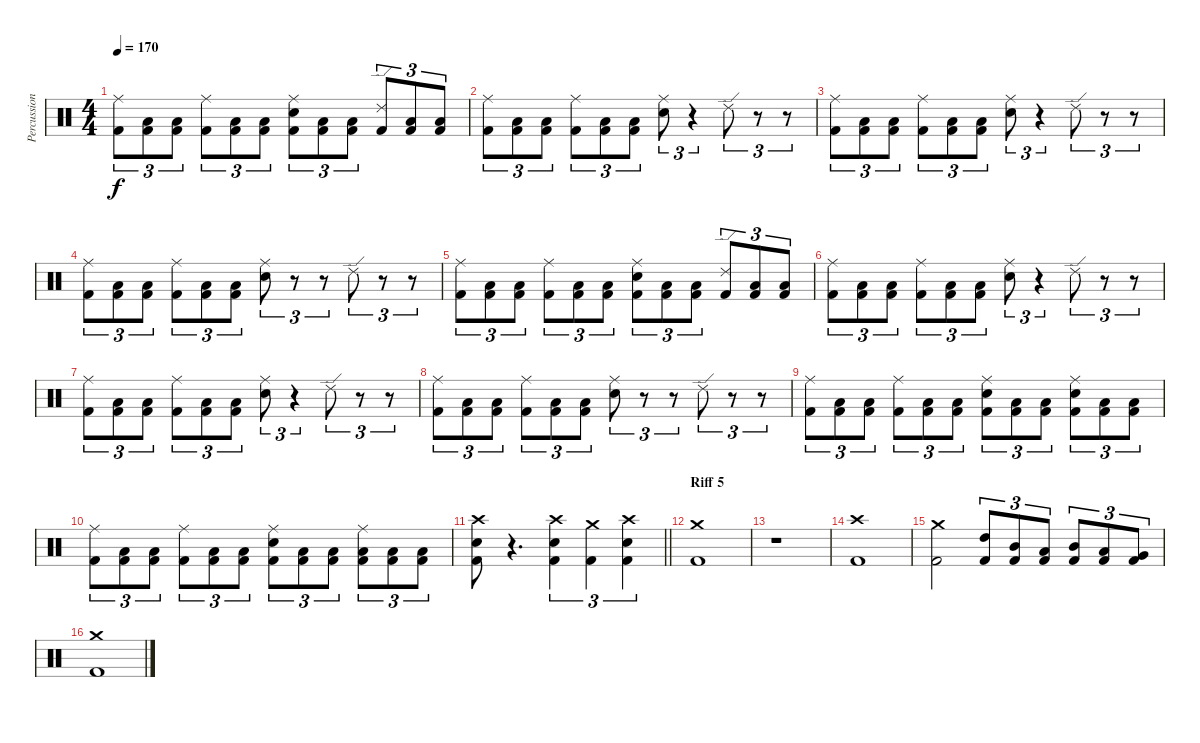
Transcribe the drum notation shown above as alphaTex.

\track ("Percussions" "Percussion") {instrument percussion}
\staff {score}
\articulation defaults
\ts (4 4)
\tempo 170
\clef neutral
\ks c
("Ride (middle)" "Kick (hit) 2").8{tu (3 2) dy f} ("Low Floor Tom (hit)" "Kick (hit) 2").8{tu (3 2)} ("Low Floor Tom (hit)" "Kick (hit) 2").8{tu (3 2)} ("Ride (middle)" "Kick (hit) 2").8{tu (3 2)} ("Low Floor Tom (hit)" "Kick (hit) 2").8{tu (3 2)} ("Low Floor Tom (hit)" "Kick (hit) 2").8{tu (3 2)} ("Ride (middle)" "Snare (hit) 2" "Kick (hit) 2").8{tu (3 2)} ("Low Floor Tom (hit)" "Kick (hit) 2").8{tu (3 2)} ("Low Floor Tom (hit)" "Kick (hit) 2").8{tu (3 2)} ("Ride (edge) 2" "Kick (hit) 2").8{tu (3 2)} ("Low Floor Tom (hit)" "Kick (hit) 2").8{tu (3 2)} ("Low Floor Tom (hit)" "Kick (hit) 2").8{tu (3 2)} |
("Ride (middle)" "Kick (hit) 2").8{tu (3 2)} ("Low Floor Tom (hit)" "Kick (hit) 2").8{tu (3 2)} ("Low Floor Tom (hit)" "Kick (hit) 2").8{tu (3 2)} ("Ride (middle)" "Kick (hit) 2").8{tu (3 2)} ("Low Floor Tom (hit)" "Kick (hit) 2").8{tu (3 2)} ("Low Floor Tom (hit)" "Kick (hit) 2").8{tu (3 2)} ("Ride (middle)" "Snare (hit) 2").8{tu (3 2)} r.4{tu (3 2)} "Ride (edge) 2".8{tu (3 2)} r.8{tu (3 2)} r.8{tu (3 2)} |
("Ride (middle)" "Kick (hit) 2").8{tu (3 2)} ("Low Floor Tom (hit)" "Kick (hit) 2").8{tu (3 2)} ("Low Floor Tom (hit)" "Kick (hit) 2").8{tu (3 2)} ("Ride (middle)" "Kick (hit) 2").8{tu (3 2)} ("Low Floor Tom (hit)" "Kick (hit) 2").8{tu (3 2)} ("Low Floor Tom (hit)" "Kick (hit) 2").8{tu (3 2)} ("Ride (middle)" "Snare (hit) 2").8{tu (3 2)} r.4{tu (3 2)} "Ride (edge) 2".8{tu (3 2)} r.8{tu (3 2)} r.8{tu (3 2)} |
("Ride (middle)" "Kick (hit) 2").8{tu (3 2)} ("Low Floor Tom (hit)" "Kick (hit) 2").8{tu (3 2)} ("Low Floor Tom (hit)" "Kick (hit) 2").8{tu (3 2)} ("Ride (middle)" "Kick (hit) 2").8{tu (3 2)} ("Low Floor Tom (hit)" "Kick (hit) 2").8{tu (3 2)} ("Low Floor Tom (hit)" "Kick (hit) 2").8{tu (3 2)} ("Ride (middle)" "Snare (hit) 2").8{tu (3 2)} r.8{tu (3 2)} r.8{tu (3 2)} "Ride (edge) 2".8{tu (3 2)} r.8{tu (3 2)} r.8{tu (3 2)} |
("Ride (middle)" "Kick (hit) 2").8{tu (3 2)} ("Low Floor Tom (hit)" "Kick (hit) 2").8{tu (3 2)} ("Low Floor Tom (hit)" "Kick (hit) 2").8{tu (3 2)} ("Ride (middle)" "Kick (hit) 2").8{tu (3 2)} ("Low Floor Tom (hit)" "Kick (hit) 2").8{tu (3 2)} ("Low Floor Tom (hit)" "Kick (hit) 2").8{tu (3 2)} ("Ride (middle)" "Snare (hit) 2" "Kick (hit) 2").8{tu (3 2)} ("Low Floor Tom (hit)" "Kick (hit) 2").8{tu (3 2)} ("Low Floor Tom (hit)" "Kick (hit) 2").8{tu (3 2)} ("Ride (edge) 2" "Kick (hit) 2").8{tu (3 2)} ("Low Floor Tom (hit)" "Kick (hit) 2").8{tu (3 2)} ("Low Floor Tom (hit)" "Kick (hit) 2").8{tu (3 2)} |
("Ride (middle)" "Kick (hit) 2").8{tu (3 2)} ("Low Floor Tom (hit)" "Kick (hit) 2").8{tu (3 2)} ("Low Floor Tom (hit)" "Kick (hit) 2").8{tu (3 2)} ("Ride (middle)" "Kick (hit) 2").8{tu (3 2)} ("Low Floor Tom (hit)" "Kick (hit) 2").8{tu (3 2)} ("Low Floor Tom (hit)" "Kick (hit) 2").8{tu (3 2)} ("Ride (middle)" "Snare (hit) 2").8{tu (3 2)} r.4{tu (3 2)} "Ride (edge) 2".8{tu (3 2)} r.8{tu (3 2)} r.8{tu (3 2)} |
("Ride (middle)" "Kick (hit) 2").8{tu (3 2)} ("Low Floor Tom (hit)" "Kick (hit) 2").8{tu (3 2)} ("Low Floor Tom (hit)" "Kick (hit) 2").8{tu (3 2)} ("Ride (middle)" "Kick (hit) 2").8{tu (3 2)} ("Low Floor Tom (hit)" "Kick (hit) 2").8{tu (3 2)} ("Low Floor Tom (hit)" "Kick (hit) 2").8{tu (3 2)} ("Ride (middle)" "Snare (hit) 2").8{tu (3 2)} r.4{tu (3 2)} "Ride (edge) 2".8{tu (3 2)} r.8{tu (3 2)} r.8{tu (3 2)} |
("Ride (middle)" "Kick (hit) 2").8{tu (3 2)} ("Low Floor Tom (hit)" "Kick (hit) 2").8{tu (3 2)} ("Low Floor Tom (hit)" "Kick (hit) 2").8{tu (3 2)} ("Ride (middle)" "Kick (hit) 2").8{tu (3 2)} ("Low Floor Tom (hit)" "Kick (hit) 2").8{tu (3 2)} ("Low Floor Tom (hit)" "Kick (hit) 2").8{tu (3 2)} ("Ride (middle)" "Snare (hit) 2").8{tu (3 2)} r.8{tu (3 2)} r.8{tu (3 2)} "Ride (edge) 2".8{tu (3 2)} r.8{tu (3 2)} r.8{tu (3 2)} |
("Ride (middle)" "Kick (hit) 2").8{tu (3 2)} ("Low Floor Tom (hit)" "Kick (hit) 2").8{tu (3 2)} ("Low Floor Tom (hit)" "Kick (hit) 2").8{tu (3 2)} ("Ride (middle)" "Kick (hit) 2").8{tu (3 2)} ("Low Floor Tom (hit)" "Kick (hit) 2").8{tu (3 2)} ("Low Floor Tom (hit)" "Kick (hit) 2").8{tu (3 2)} ("Ride (middle)" "Snare (hit) 2" "Kick (hit) 2").8{tu (3 2)} ("Low Floor Tom (hit)" "Kick (hit) 2").8{tu (3 2)} ("Low Floor Tom (hit)" "Kick (hit) 2").8{tu (3 2)} ("Ride (middle)" "Snare (hit) 2" "Kick (hit) 2").8{tu (3 2)} ("Low Floor Tom (hit)" "Kick (hit) 2").8{tu (3 2)} ("Low Floor Tom (hit)" "Kick (hit) 2").8{tu (3 2)} |
("Ride (middle)" "Kick (hit) 2").8{tu (3 2)} ("Low Floor Tom (hit)" "Kick (hit) 2").8{tu (3 2)} ("Low Floor Tom (hit)" "Kick (hit) 2").8{tu (3 2)} ("Ride (middle)" "Kick (hit) 2").8{tu (3 2)} ("Low Floor Tom (hit)" "Kick (hit) 2").8{tu (3 2)} ("Low Floor Tom (hit)" "Kick (hit) 2").8{tu (3 2)} ("Ride (middle)" "Snare (hit) 2" "Kick (hit) 2").8{tu (3 2)} ("Low Floor Tom (hit)" "Kick (hit) 2").8{tu (3 2)} ("Low Floor Tom (hit)" "Kick (hit) 2").8{tu (3 2)} ("Ride (middle)" "Low Floor Tom (hit)" "Kick (hit) 2").8{tu (3 2)} ("Low Floor Tom (hit)" "Kick (hit) 2").8{tu (3 2)} ("Low Floor Tom (hit)" "Kick (hit) 2").8{tu (3 2)} |
\barLineRight lightlight
("Crash high (hit)" "Snare (hit) 2" "Kick (hit) 2").8 r.4{d} ("Crash high (hit)" "Snare (hit) 2" "Kick (hit) 2").4{tu (3 2)} ("Crash medium (hit)" "Kick (hit) 2").4{tu (3 2)} ("Crash high (hit)" "Snare (hit) 2" "Kick (hit) 2").4{tu (3 2)} |
\section ("" "Riff 5")
("Crash medium (hit)" "Kick (hit) 2").1 |
r.1 |
("Crash high (hit)" "Kick (hit) 2").1 |
("Crash medium (hit)" "Kick (hit) 2").2 ("High Tom (hit)" "Kick (hit) 2").8{tu (3 2)} ("Mid Tom (hit)" "Kick (hit) 2").8{tu (3 2)} ("Low Tom (hit)" "Kick (hit) 2").8{tu (3 2)} ("Mid Tom (hit)" "Kick (hit) 2").8{tu (3 2)} ("Low Tom (hit)" "Kick (hit) 2").8{tu (3 2)} ("Very Low Tom (hit)" "Kick (hit) 2").8{tu (3 2)} |
("Crash medium (hit)" "Kick (hit) 2").1
